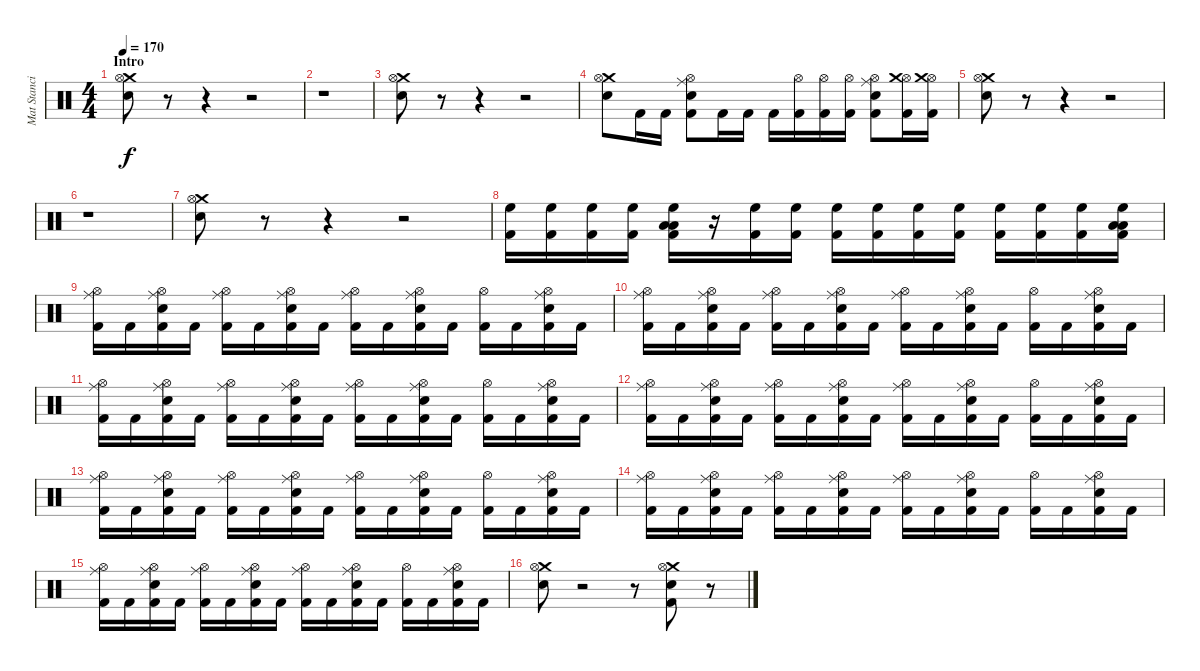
\track ("Mat Stancioiu" "Mat Stanci") {instrument percussion}
\staff {score}
\articulation defaults
\ts (4 4)
\section ("" "Intro")
\tempo 170
\clef neutral
\ks c
("Crash medium (hit)" "Hi-Hat (open)" "Snare (hit)").8{dy f} r.8 r.4 r.2 |
r.1 |
("Crash medium (hit)" "Hi-Hat (open)" "Snare (hit)").8 r.8 r.4 r.2 |
("Crash medium (hit)" "Hi-Hat (open)" "Snare (hit)").8 "Kick (hit) 2".16 "Kick (hit) 2".16 ("Electric Snare (hit)" "Hi-Hat (open)" "Kick (hit) 2" "Ride (middle)").8 "Kick (hit) 2".16 "Kick (hit) 2".16 "Kick (hit) 2".16 ("Kick (hit) 2" "Hi-Hat (open)").16 ("Kick (hit) 2" "Hi-Hat (open)").16 ("Kick (hit) 2" "Hi-Hat (open)").16 ("Electric Snare (hit)" "Hi-Hat (open)" "Kick (hit) 2" "Ride (middle)").8 ("Kick (hit) 2" "Hi-Hat (open)" "Crash medium (hit)").16 ("Kick (hit) 2" "Hi-Hat (open)" "Crash medium (hit)").16 |
("Crash medium (hit)" "Hi-Hat (open)" "Snare (hit)").8 r.8 r.4 r.2 |
r.1 |
("Crash medium (hit)" "Hi-Hat (open)" "Snare (hit)").8 r.8 r.4 r.2 |
("Kick (hit) 2" "High Floor Tom (hit)").16 ("Kick (hit) 2" "High Floor Tom (hit)").16 ("Kick (hit) 2" "High Floor Tom (hit)").16 ("Kick (hit) 2" "High Floor Tom (hit)").16 ("Kick (hit) 2" "High Floor Tom (hit)" "Low Tom (hit)" "Low Floor Tom (hit)").16 r.16 ("Kick (hit) 2" "High Floor Tom (hit)").16 ("Kick (hit) 2" "High Floor Tom (hit)").16 ("Kick (hit) 2" "High Floor Tom (hit)").16 ("Kick (hit) 2" "High Floor Tom (hit)").16 ("Kick (hit) 2" "High Floor Tom (hit)").16 ("Kick (hit) 2" "High Floor Tom (hit)").16 ("Kick (hit) 2" "High Floor Tom (hit)").16 ("Kick (hit) 2" "High Floor Tom (hit)").16 ("Kick (hit) 2" "High Floor Tom (hit)").16 ("Kick (hit) 2" "High Floor Tom (hit)" "Low Tom (hit)" "Low Floor Tom (hit)").16 |
("Hi-Hat (open)" "Kick (hit) 2" "Ride (middle)").16 "Kick (hit) 2".16 ("Electric Snare (hit)" "Hi-Hat (open)" "Kick (hit) 2" "Ride (middle)").16 "Kick (hit) 2".16 ("Hi-Hat (open)" "Kick (hit) 2" "Ride (middle)").16 "Kick (hit) 2".16 ("Electric Snare (hit)" "Hi-Hat (open)" "Kick (hit) 2" "Ride (middle)").16 "Kick (hit) 2".16 ("Hi-Hat (open)" "Kick (hit) 2" "Ride (middle)").16 "Kick (hit) 2".16 ("Electric Snare (hit)" "Hi-Hat (open)" "Kick (hit) 2" "Ride (middle)").16 "Kick (hit) 2".16 ("Hi-Hat (open)" "Kick (hit) 2").16 "Kick (hit) 2".16 ("Electric Snare (hit)" "Hi-Hat (open)" "Kick (hit) 2" "Ride (middle)").16 "Kick (hit) 2".16 |
("Hi-Hat (open)" "Kick (hit) 2" "Ride (middle)").16 "Kick (hit) 2".16 ("Electric Snare (hit)" "Hi-Hat (open)" "Kick (hit) 2" "Ride (middle)").16 "Kick (hit) 2".16 ("Hi-Hat (open)" "Kick (hit) 2" "Ride (middle)").16 "Kick (hit) 2".16 ("Electric Snare (hit)" "Hi-Hat (open)" "Kick (hit) 2" "Ride (middle)").16 "Kick (hit) 2".16 ("Hi-Hat (open)" "Kick (hit) 2" "Ride (middle)").16 "Kick (hit) 2".16 ("Electric Snare (hit)" "Hi-Hat (open)" "Kick (hit) 2" "Ride (middle)").16 "Kick (hit) 2".16 ("Hi-Hat (open)" "Kick (hit) 2").16 "Kick (hit) 2".16 ("Electric Snare (hit)" "Hi-Hat (open)" "Kick (hit) 2" "Ride (middle)").16 "Kick (hit) 2".16 |
("Hi-Hat (open)" "Kick (hit) 2" "Ride (middle)").16 "Kick (hit) 2".16 ("Electric Snare (hit)" "Hi-Hat (open)" "Kick (hit) 2" "Ride (middle)").16 "Kick (hit) 2".16 ("Hi-Hat (open)" "Kick (hit) 2" "Ride (middle)").16 "Kick (hit) 2".16 ("Electric Snare (hit)" "Hi-Hat (open)" "Kick (hit) 2" "Ride (middle)").16 "Kick (hit) 2".16 ("Hi-Hat (open)" "Kick (hit) 2" "Ride (middle)").16 "Kick (hit) 2".16 ("Electric Snare (hit)" "Hi-Hat (open)" "Kick (hit) 2" "Ride (middle)").16 "Kick (hit) 2".16 ("Hi-Hat (open)" "Kick (hit) 2").16 "Kick (hit) 2".16 ("Electric Snare (hit)" "Hi-Hat (open)" "Kick (hit) 2" "Ride (middle)").16 "Kick (hit) 2".16 |
("Hi-Hat (open)" "Kick (hit) 2" "Ride (middle)").16 "Kick (hit) 2".16 ("Electric Snare (hit)" "Hi-Hat (open)" "Kick (hit) 2" "Ride (middle)").16 "Kick (hit) 2".16 ("Hi-Hat (open)" "Kick (hit) 2" "Ride (middle)").16 "Kick (hit) 2".16 ("Electric Snare (hit)" "Hi-Hat (open)" "Kick (hit) 2" "Ride (middle)").16 "Kick (hit) 2".16 ("Hi-Hat (open)" "Kick (hit) 2" "Ride (middle)").16 "Kick (hit) 2".16 ("Electric Snare (hit)" "Hi-Hat (open)" "Kick (hit) 2" "Ride (middle)").16 "Kick (hit) 2".16 ("Hi-Hat (open)" "Kick (hit) 2").16 "Kick (hit) 2".16 ("Electric Snare (hit)" "Hi-Hat (open)" "Kick (hit) 2" "Ride (middle)").16 "Kick (hit) 2".16 |
("Hi-Hat (open)" "Kick (hit) 2" "Ride (middle)").16 "Kick (hit) 2".16 ("Electric Snare (hit)" "Hi-Hat (open)" "Kick (hit) 2" "Ride (middle)").16 "Kick (hit) 2".16 ("Hi-Hat (open)" "Kick (hit) 2" "Ride (middle)").16 "Kick (hit) 2".16 ("Electric Snare (hit)" "Hi-Hat (open)" "Kick (hit) 2" "Ride (middle)").16 "Kick (hit) 2".16 ("Hi-Hat (open)" "Kick (hit) 2" "Ride (middle)").16 "Kick (hit) 2".16 ("Electric Snare (hit)" "Hi-Hat (open)" "Kick (hit) 2" "Ride (middle)").16 "Kick (hit) 2".16 ("Hi-Hat (open)" "Kick (hit) 2").16 "Kick (hit) 2".16 ("Electric Snare (hit)" "Hi-Hat (open)" "Kick (hit) 2" "Ride (middle)").16 "Kick (hit) 2".16 |
("Hi-Hat (open)" "Kick (hit) 2" "Ride (middle)").16 "Kick (hit) 2".16 ("Electric Snare (hit)" "Hi-Hat (open)" "Kick (hit) 2" "Ride (middle)").16 "Kick (hit) 2".16 ("Hi-Hat (open)" "Kick (hit) 2" "Ride (middle)").16 "Kick (hit) 2".16 ("Electric Snare (hit)" "Hi-Hat (open)" "Kick (hit) 2" "Ride (middle)").16 "Kick (hit) 2".16 ("Hi-Hat (open)" "Kick (hit) 2" "Ride (middle)").16 "Kick (hit) 2".16 ("Electric Snare (hit)" "Hi-Hat (open)" "Kick (hit) 2" "Ride (middle)").16 "Kick (hit) 2".16 ("Hi-Hat (open)" "Kick (hit) 2").16 "Kick (hit) 2".16 ("Electric Snare (hit)" "Hi-Hat (open)" "Kick (hit) 2" "Ride (middle)").16 "Kick (hit) 2".16 |
("Hi-Hat (open)" "Kick (hit) 2" "Ride (middle)").16 "Kick (hit) 2".16 ("Electric Snare (hit)" "Hi-Hat (open)" "Kick (hit) 2" "Ride (middle)").16 "Kick (hit) 2".16 ("Hi-Hat (open)" "Kick (hit) 2" "Ride (middle)").16 "Kick (hit) 2".16 ("Electric Snare (hit)" "Hi-Hat (open)" "Kick (hit) 2" "Ride (middle)").16 "Kick (hit) 2".16 ("Hi-Hat (open)" "Kick (hit) 2" "Ride (middle)").16 "Kick (hit) 2".16 ("Electric Snare (hit)" "Hi-Hat (open)" "Kick (hit) 2" "Ride (middle)").16 "Kick (hit) 2".16 ("Hi-Hat (open)" "Kick (hit) 2").16 "Kick (hit) 2".16 ("Electric Snare (hit)" "Hi-Hat (open)" "Kick (hit) 2" "Ride (middle)").16 "Kick (hit) 2".16 |
("Crash medium (hit)" "Hi-Hat (open)" "Snare (hit)").8 r.2 r.8 ("Crash medium (hit)" "Hi-Hat (open)" "Kick (hit) 2" "Electric Snare (hit)").8 r.8
